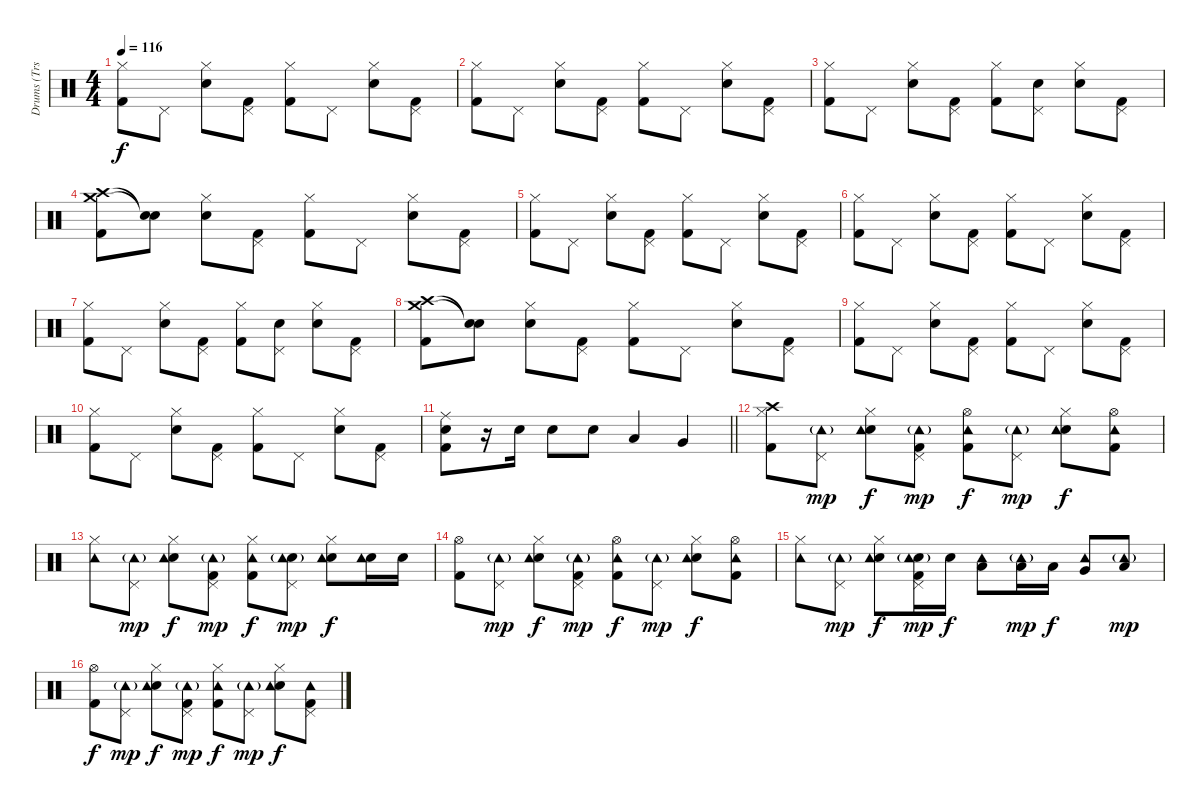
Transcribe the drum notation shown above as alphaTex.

\track ("Drums (Trs. 7-8A, 10A/7-8B, 10B, 12-13B)" "Drums (Trs") {mute instrument percussion}
\staff {score}
\articulation defaults
\ts (4 4)
\tempo 116
\clef neutral
\ks c
("Hi-Hat (closed)" "Kick (hit) 2").8{dy f} "Pedal Hi-Hat (hit)".8 ("Electric Snare (hit)" "Hi-Hat (closed)").8 ("Pedal Hi-Hat (hit)" "Kick (hit) 2").8 ("Hi-Hat (closed)" "Kick (hit) 2").8 "Pedal Hi-Hat (hit)".8 ("Electric Snare (hit)" "Hi-Hat (closed)").8 ("Pedal Hi-Hat (hit)" "Kick (hit) 2").8 |
("Hi-Hat (closed)" "Kick (hit) 2").8 "Pedal Hi-Hat (hit)".8 ("Electric Snare (hit)" "Hi-Hat (closed)").8 ("Pedal Hi-Hat (hit)" "Kick (hit) 2").8 ("Hi-Hat (closed)" "Kick (hit) 2").8 "Pedal Hi-Hat (hit)".8 ("Electric Snare (hit)" "Hi-Hat (closed)").8 ("Pedal Hi-Hat (hit)" "Kick (hit) 2").8 |
("Hi-Hat (closed)" "Kick (hit) 2").8 "Pedal Hi-Hat (hit)".8 ("Electric Snare (hit)" "Hi-Hat (closed)").8 ("Pedal Hi-Hat (hit)" "Kick (hit) 2").8 ("Hi-Hat (closed)" "Kick (hit) 2").8 ("Electric Snare (hit)" "Pedal Hi-Hat (hit)").8 ("Electric Snare (hit)" "Hi-Hat (closed)").8 ("Pedal Hi-Hat (hit)" "Kick (hit) 2").8 |
("Crash medium (hit)" "Crash high (hit)" "Kick (hit) 2").8 ("Snare (hit)"{t} "Snare (hit)"{t}).8 ("Electric Snare (hit)" "Hi-Hat (closed)").8 ("Pedal Hi-Hat (hit)" "Kick (hit) 2").8 ("Hi-Hat (closed)" "Kick (hit) 2").8 "Pedal Hi-Hat (hit)".8 ("Electric Snare (hit)" "Hi-Hat (closed)").8 ("Pedal Hi-Hat (hit)" "Kick (hit) 2").8 |
("Hi-Hat (closed)" "Kick (hit) 2").8 "Pedal Hi-Hat (hit)".8 ("Electric Snare (hit)" "Hi-Hat (closed)").8 ("Pedal Hi-Hat (hit)" "Kick (hit) 2").8 ("Hi-Hat (closed)" "Kick (hit) 2").8 "Pedal Hi-Hat (hit)".8 ("Electric Snare (hit)" "Hi-Hat (closed)").8 ("Pedal Hi-Hat (hit)" "Kick (hit) 2").8 |
("Hi-Hat (closed)" "Kick (hit) 2").8 "Pedal Hi-Hat (hit)".8 ("Electric Snare (hit)" "Hi-Hat (closed)").8 ("Pedal Hi-Hat (hit)" "Kick (hit) 2").8 ("Hi-Hat (closed)" "Kick (hit) 2").8 "Pedal Hi-Hat (hit)".8 ("Electric Snare (hit)" "Hi-Hat (closed)").8 ("Pedal Hi-Hat (hit)" "Kick (hit) 2").8 |
("Hi-Hat (closed)" "Kick (hit) 2").8 "Pedal Hi-Hat (hit)".8 ("Electric Snare (hit)" "Hi-Hat (closed)").8 ("Pedal Hi-Hat (hit)" "Kick (hit) 2").8 ("Hi-Hat (closed)" "Kick (hit) 2").8 ("Electric Snare (hit)" "Pedal Hi-Hat (hit)").8 ("Electric Snare (hit)" "Hi-Hat (closed)").8 ("Pedal Hi-Hat (hit)" "Kick (hit) 2").8 |
("Crash medium (hit)" "Crash high (hit)" "Kick (hit) 2").8 ("Snare (hit)"{t} "Snare (hit)"{t}).8 ("Electric Snare (hit)" "Hi-Hat (closed)").8 ("Pedal Hi-Hat (hit)" "Kick (hit) 2").8 ("Hi-Hat (closed)" "Kick (hit) 2").8 "Pedal Hi-Hat (hit)".8 ("Electric Snare (hit)" "Hi-Hat (closed)").8 ("Pedal Hi-Hat (hit)" "Kick (hit) 2").8 |
("Hi-Hat (closed)" "Kick (hit) 2").8 "Pedal Hi-Hat (hit)".8 ("Electric Snare (hit)" "Hi-Hat (closed)").8 ("Pedal Hi-Hat (hit)" "Kick (hit) 2").8 ("Hi-Hat (closed)" "Kick (hit) 2").8 "Pedal Hi-Hat (hit)".8 ("Electric Snare (hit)" "Hi-Hat (closed)").8 ("Pedal Hi-Hat (hit)" "Kick (hit) 2").8 |
("Hi-Hat (closed)" "Kick (hit) 2").8 "Pedal Hi-Hat (hit)".8 ("Electric Snare (hit)" "Hi-Hat (closed)").8 ("Pedal Hi-Hat (hit)" "Kick (hit) 2").8 ("Hi-Hat (closed)" "Kick (hit) 2").8 "Pedal Hi-Hat (hit)".8 ("Electric Snare (hit)" "Hi-Hat (closed)").8 ("Pedal Hi-Hat (hit)" "Kick (hit) 2").8 |
\barLineRight lightlight
("Ride (middle)" "Electric Snare (hit)" "Kick (hit) 2").8 r.16 "Electric Snare (hit)".16 "Electric Snare (hit)".8 "Electric Snare (hit)".8 "Low Tom (hit)".4 "Very Low Tom (hit)".4 |
("Crash high (hit)" "Hi-Hat (closed)" "Kick (hit) 2").8 ("Pedal Hi-Hat (hit)" "Tambourine (hit)"{g}).8{dy mp} ("Electric Snare (hit)" "Hi-Hat (closed)" "Tambourine (hit)").8{dy f} ("Pedal Hi-Hat (hit)" "Tambourine (hit)"{g} "Kick (hit) 2").8{dy mp} ("Hi-Hat (open)" "Tambourine (hit)" "Kick (hit) 2").8{dy f} ("Pedal Hi-Hat (hit)" "Tambourine (hit)"{g}).8{dy mp} ("Electric Snare (hit)" "Hi-Hat (closed)" "Tambourine (hit)").8{dy f} ("Hi-Hat (open)" "Tambourine (hit)" "Kick (hit) 2").8 |
("Hi-Hat (closed)" "Tambourine (hit)").8 ("Pedal Hi-Hat (hit)" "Tambourine (hit)"{g}).8{dy mp} ("Electric Snare (hit)" "Hi-Hat (closed)" "Tambourine (hit)").8{dy f} ("Pedal Hi-Hat (hit)" "Tambourine (hit)"{g} "Kick (hit) 2").8{dy mp} ("Hi-Hat (closed)" "Tambourine (hit)" "Kick (hit) 2").8{dy f} ("Electric Snare (hit)" "Pedal Hi-Hat (hit)" "Tambourine (hit)"{g}).8{dy mp} ("Electric Snare (hit)" "Hi-Hat (closed)" "Tambourine (hit)").8{dy f} ("Electric Snare (hit)" "Tambourine (hit)").16 "Electric Snare (hit)".16 |
("Hi-Hat (open)" "Kick (hit) 2").8 ("Pedal Hi-Hat (hit)" "Tambourine (hit)"{g}).8{dy mp} ("Electric Snare (hit)" "Hi-Hat (closed)" "Tambourine (hit)").8{dy f} ("Pedal Hi-Hat (hit)" "Tambourine (hit)"{g} "Kick (hit) 2").8{dy mp} ("Hi-Hat (open)" "Tambourine (hit)" "Kick (hit) 2").8{dy f} ("Pedal Hi-Hat (hit)" "Tambourine (hit)"{g}).8{dy mp} ("Electric Snare (hit)" "Hi-Hat (closed)" "Tambourine (hit)").8{dy f} ("Hi-Hat (open)" "Tambourine (hit)" "Kick (hit) 2").8 |
("Hi-Hat (closed)" "Tambourine (hit)").8 ("Pedal Hi-Hat (hit)" "Tambourine (hit)"{g}).8{dy mp} ("Electric Snare (hit)" "Hi-Hat (closed)" "Tambourine (hit)").8{dy f} ("Electric Snare (hit)" "Pedal Hi-Hat (hit)" "Tambourine (hit)"{g} "Kick (hit) 2").16{dy mp} "Electric Snare (hit)".16{dy f} ("Tambourine (hit)" "Low Tom (hit)").8 ("Tambourine (hit)"{g} "Low Tom (hit)").16{dy mp} "Low Tom (hit)".16{dy f} ("Tambourine (hit)" "Very Low Tom (hit)").8 ("Tambourine (hit)"{g} "Low Floor Tom (hit)").8{dy mp} |
("Hi-Hat (open)" "Kick (hit) 2").8{dy f} ("Pedal Hi-Hat (hit)" "Tambourine (hit)"{g}).8{dy mp} ("Electric Snare (hit)" "Hi-Hat (closed)" "Tambourine (hit)").8{dy f} ("Pedal Hi-Hat (hit)" "Tambourine (hit)"{g} "Kick (hit) 2").8{dy mp} ("Hi-Hat (closed)" "Tambourine (hit)" "Kick (hit) 2").8{dy f} ("Pedal Hi-Hat (hit)" "Tambourine (hit)"{g}).8{dy mp} ("Electric Snare (hit)" "Hi-Hat (closed)" "Tambourine (hit)").8{dy f} ("Pedal Hi-Hat (hit)" "Tambourine (hit)" "Kick (hit) 2").8
